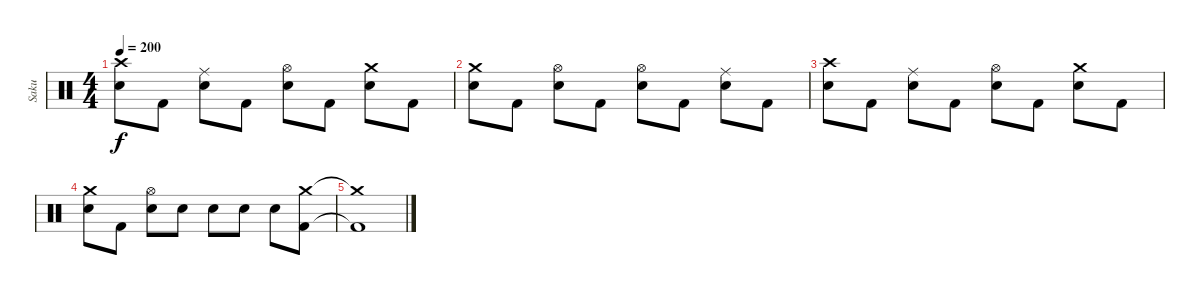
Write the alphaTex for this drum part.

\track ("Saku" "Saku") {instrument percussion}
\staff {score}
\articulation defaults
\ts (4 4)
\tempo 200
\clef neutral
\ks c
("Crash high (hit)" "Electric Snare (hit)").8{dy f} "Kick (hit) 2".8 ("Ride (middle)" "Electric Snare (hit)").8 "Kick (hit) 2".8 ("Hi-Hat (open)" "Electric Snare (hit)").8 "Kick (hit) 2".8 ("Crash medium (hit)" "Electric Snare (hit)").8 "Kick (hit) 2".8 |
("Crash medium (hit)" "Electric Snare (hit)").8 "Kick (hit) 2".8 ("Hi-Hat (open)" "Electric Snare (hit)").8 "Kick (hit) 2".8 ("Hi-Hat (open)" "Electric Snare (hit)").8 "Kick (hit) 2".8 ("Ride (middle)" "Electric Snare (hit)").8 "Kick (hit) 2".8 |
("Crash high (hit)" "Electric Snare (hit)").8 "Kick (hit) 2".8 ("Ride (middle)" "Electric Snare (hit)").8 "Kick (hit) 2".8 ("Hi-Hat (open)" "Electric Snare (hit)").8 "Kick (hit) 2".8 ("Crash medium (hit)" "Electric Snare (hit)").8 "Kick (hit) 2".8 |
("Crash medium (hit)" "Electric Snare (hit)").8 "Kick (hit) 2".8 ("Hi-Hat (open)" "Electric Snare (hit)").8 "Electric Snare (hit)".8 "Electric Snare (hit)".8 "Electric Snare (hit)".8 "Electric Snare (hit)".8 ("Crash medium (hit)" "Kick (hit) 2").8 |
("Crash medium (hit)"{t} "Kick (hit) 2"{t}).1
